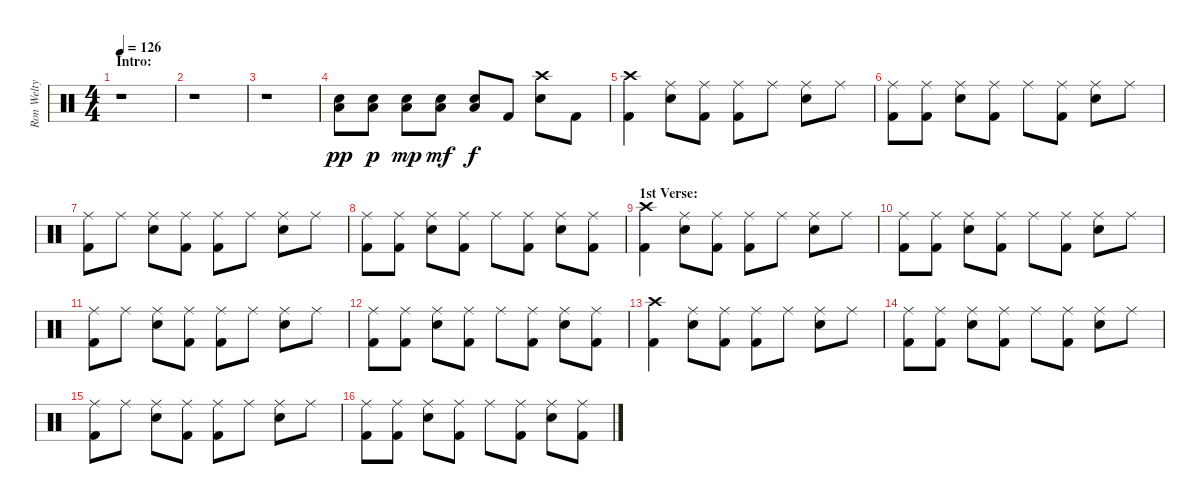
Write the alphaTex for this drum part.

\track ("Ron Welty - Drums" "Ron Welty ") {instrument percussion}
\staff {score}
\articulation defaults
\ts (4 4)
\section ("" "Intro:")
\tempo 126
\clef neutral
\ks c
r.1{dy pp} |
r.1 |
r.1 |
("Snare (hit) 2" "Low Floor Tom (hit)").8 ("Snare (hit) 2" "Low Floor Tom (hit)").8{dy p} ("Snare (hit) 2" "Low Floor Tom (hit)").8{dy mp} ("Snare (hit) 2" "Low Floor Tom (hit)").8{dy mf} ("Snare (hit) 2" "Low Floor Tom (hit)").8{dy f} "Kick (hit) 2".8 ("Crash high (hit)" "Snare (hit) 2").8 "Kick (hit) 2".8 |
("Crash high (hit)" "Kick (hit) 2").4 ("Ride (middle)" "Snare (hit) 2").8 ("Ride (middle)" "Kick (hit) 2").8 ("Ride (middle)" "Kick (hit) 2").8 "Ride (middle)".8 ("Ride (middle)" "Snare (hit) 2").8 "Ride (middle)".8 |
("Ride (middle)" "Kick (hit) 2").8 ("Ride (middle)" "Kick (hit) 2").8 ("Ride (middle)" "Snare (hit) 2").8 ("Ride (middle)" "Kick (hit) 2").8 "Ride (middle)".8 ("Ride (middle)" "Kick (hit) 2").8 ("Ride (middle)" "Snare (hit) 2").8 "Ride (middle)".8 |
("Ride (middle)" "Kick (hit) 2").8 "Ride (middle)".8 ("Ride (middle)" "Snare (hit) 2").8 ("Ride (middle)" "Kick (hit) 2").8 ("Ride (middle)" "Kick (hit) 2").8 "Ride (middle)".8 ("Ride (middle)" "Snare (hit) 2").8 "Ride (middle)".8 |
("Ride (middle)" "Kick (hit) 2").8 ("Ride (middle)" "Kick (hit) 2").8 ("Ride (middle)" "Snare (hit) 2").8 ("Ride (middle)" "Kick (hit) 2").8 "Ride (middle)".8 ("Ride (middle)" "Kick (hit) 2").8 ("Ride (middle)" "Snare (hit) 2").8 ("Ride (middle)" "Kick (hit) 2").8 |
\section ("" "1st Verse:")
("Crash high (hit)" "Kick (hit) 2").4 ("Ride (middle)" "Snare (hit) 2").8 ("Ride (middle)" "Kick (hit) 2").8 ("Ride (middle)" "Kick (hit) 2").8 "Ride (middle)".8 ("Ride (middle)" "Snare (hit) 2").8 "Ride (middle)".8 |
("Ride (middle)" "Kick (hit) 2").8 ("Ride (middle)" "Kick (hit) 2").8 ("Ride (middle)" "Snare (hit) 2").8 ("Ride (middle)" "Kick (hit) 2").8 "Ride (middle)".8 ("Ride (middle)" "Kick (hit) 2").8 ("Ride (middle)" "Snare (hit) 2").8 "Ride (middle)".8 |
("Ride (middle)" "Kick (hit) 2").8 "Ride (middle)".8 ("Ride (middle)" "Snare (hit) 2").8 ("Ride (middle)" "Kick (hit) 2").8 ("Ride (middle)" "Kick (hit) 2").8 "Ride (middle)".8 ("Ride (middle)" "Snare (hit) 2").8 "Ride (middle)".8 |
("Ride (middle)" "Kick (hit) 2").8 ("Ride (middle)" "Kick (hit) 2").8 ("Ride (middle)" "Snare (hit) 2").8 ("Ride (middle)" "Kick (hit) 2").8 "Ride (middle)".8 ("Ride (middle)" "Kick (hit) 2").8 ("Ride (middle)" "Snare (hit) 2").8 ("Ride (middle)" "Kick (hit) 2").8 |
("Crash high (hit)" "Kick (hit) 2").4 ("Ride (middle)" "Snare (hit) 2").8 ("Ride (middle)" "Kick (hit) 2").8 ("Ride (middle)" "Kick (hit) 2").8 "Ride (middle)".8 ("Ride (middle)" "Snare (hit) 2").8 "Ride (middle)".8 |
("Ride (middle)" "Kick (hit) 2").8 ("Ride (middle)" "Kick (hit) 2").8 ("Ride (middle)" "Snare (hit) 2").8 ("Ride (middle)" "Kick (hit) 2").8 "Ride (middle)".8 ("Ride (middle)" "Kick (hit) 2").8 ("Ride (middle)" "Snare (hit) 2").8 "Ride (middle)".8 |
("Ride (middle)" "Kick (hit) 2").8 "Ride (middle)".8 ("Ride (middle)" "Snare (hit) 2").8 ("Ride (middle)" "Kick (hit) 2").8 ("Ride (middle)" "Kick (hit) 2").8 "Ride (middle)".8 ("Ride (middle)" "Snare (hit) 2").8 "Ride (middle)".8 |
("Ride (middle)" "Kick (hit) 2").8 ("Ride (middle)" "Kick (hit) 2").8 ("Ride (middle)" "Snare (hit) 2").8 ("Ride (middle)" "Kick (hit) 2").8 "Ride (middle)".8 ("Ride (middle)" "Kick (hit) 2").8 ("Ride (middle)" "Snare (hit) 2").8 ("Ride (middle)" "Kick (hit) 2").8
